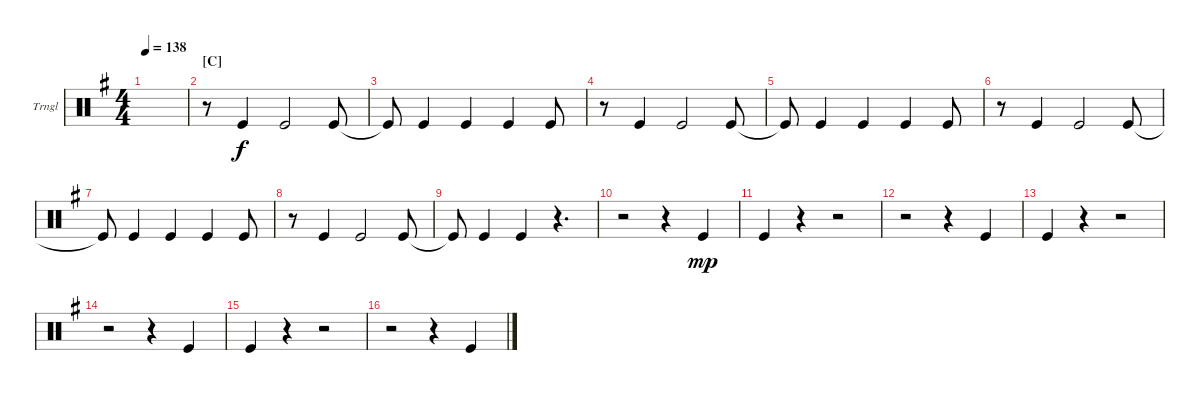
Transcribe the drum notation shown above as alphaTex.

\defaultSystemsLayout 4
\bracketExtendMode groupsimilarinstruments
\firstSystemTrackNameOrientation horizontal
\otherSystemsTrackNameOrientation horizontal
\track ("Triangle" "Trngl") {instrument percussion}
\staff {score}
\articulation defaults
\ts (4 4)
\tempo 138
\clef neutral
\ks g
|
\section ("C" "")
r.8 "Kick (hit)".4 "Kick (hit)".2 "Kick (hit)".8 |
"Kick (hit)"{t}.8 "Kick (hit)".4 "Kick (hit)".4 "Kick (hit)".4 "Kick (hit)".8 |
r.8 "Kick (hit)".4 "Kick (hit)".2 "Kick (hit)".8 |
"Kick (hit)"{t}.8 "Kick (hit)".4 "Kick (hit)".4 "Kick (hit)".4 "Kick (hit)".8 |
r.8 "Kick (hit)".4 "Kick (hit)".2 "Kick (hit)".8 |
"Kick (hit)"{t}.8 "Kick (hit)".4 "Kick (hit)".4 "Kick (hit)".4 "Kick (hit)".8 |
r.8 "Kick (hit)".4 "Kick (hit)".2 "Kick (hit)".8 |
"Kick (hit)"{t}.8 "Kick (hit)".4 "Kick (hit)".4 r.4{d} |
r.2 r.4 "Kick (hit)".4{dy mp} |
"Kick (hit)".4 r.4 r.2 |
r.2 r.4 "Kick (hit)".4 |
"Kick (hit)".4 r.4 r.2 |
r.2 r.4 "Kick (hit)".4 |
"Kick (hit)".4 r.4 r.2 |
r.2 r.4 "Kick (hit)".4
